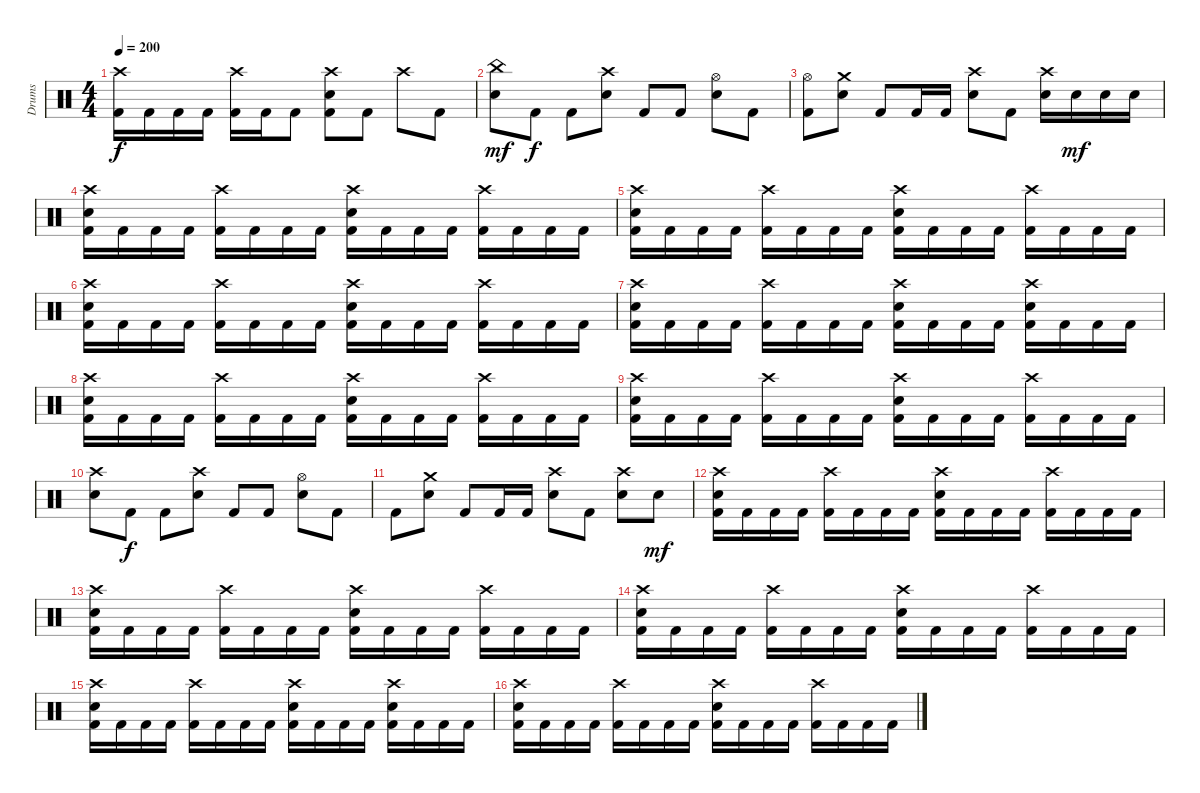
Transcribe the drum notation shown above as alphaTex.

\track ("Drums" "Drums") {instrument percussion}
\staff {score}
\articulation defaults
\ts (4 4)
\tempo 200
\clef neutral
\ks c
("Crash high (hit)" "Kick (hit) 2").16{dy f} "Kick (hit) 2".16 "Kick (hit) 2".16 "Kick (hit) 2".16 ("Crash high (hit)" "Kick (hit) 2").16 "Kick (hit) 2".16 "Kick (hit) 2".8 ("Crash high (hit)" "Electric Snare (hit)" "Kick (hit) 2").8 "Kick (hit) 2".8 "Crash high (hit)".8 "Kick (hit) 2".8 |
("China (hit)" "Electric Snare (hit)").8{dy mf} "Kick (hit) 2".8{dy f} "Kick (hit) 2".8 ("Crash high (hit)" "Electric Snare (hit)").8 "Kick (hit) 2".8 "Kick (hit) 2".8 ("Hi-Hat (open)" "Electric Snare (hit)").8 "Kick (hit) 2".8 |
("Hi-Hat (open)" "Kick (hit) 2").8 ("Crash medium (hit)" "Electric Snare (hit)").8 "Kick (hit) 2".8 "Kick (hit) 2".16 "Kick (hit) 2".16 ("Crash high (hit)" "Electric Snare (hit)").8 "Kick (hit) 2".8 ("Crash high (hit)" "Electric Snare (hit)").16 "Electric Snare (hit)".16{dy mf} "Electric Snare (hit)".16 "Electric Snare (hit)".16 |
("Crash high (hit)" "Electric Snare (hit)" "Kick (hit) 2").16 "Kick (hit) 2".16 "Kick (hit) 2".16 "Kick (hit) 2".16 ("Crash high (hit)" "Kick (hit) 2").16 "Kick (hit) 2".16 "Kick (hit) 2".16 "Kick (hit) 2".16 ("Crash high (hit)" "Electric Snare (hit)" "Kick (hit) 2").16 "Kick (hit) 2".16 "Kick (hit) 2".16 "Kick (hit) 2".16 ("Crash high (hit)" "Kick (hit) 2").16 "Kick (hit) 2".16 "Kick (hit) 2".16 "Kick (hit) 2".16 |
("Crash high (hit)" "Electric Snare (hit)" "Kick (hit) 2").16 "Kick (hit) 2".16 "Kick (hit) 2".16 "Kick (hit) 2".16 ("Crash high (hit)" "Kick (hit) 2").16 "Kick (hit) 2".16 "Kick (hit) 2".16 "Kick (hit) 2".16 ("Crash high (hit)" "Electric Snare (hit)" "Kick (hit) 2").16 "Kick (hit) 2".16 "Kick (hit) 2".16 "Kick (hit) 2".16 ("Crash high (hit)" "Kick (hit) 2").16 "Kick (hit) 2".16 "Kick (hit) 2".16 "Kick (hit) 2".16 |
("Crash high (hit)" "Electric Snare (hit)" "Kick (hit) 2").16 "Kick (hit) 2".16 "Kick (hit) 2".16 "Kick (hit) 2".16 ("Crash high (hit)" "Kick (hit) 2").16 "Kick (hit) 2".16 "Kick (hit) 2".16 "Kick (hit) 2".16 ("Crash high (hit)" "Electric Snare (hit)" "Kick (hit) 2").16 "Kick (hit) 2".16 "Kick (hit) 2".16 "Kick (hit) 2".16 ("Crash high (hit)" "Kick (hit) 2").16 "Kick (hit) 2".16 "Kick (hit) 2".16 "Kick (hit) 2".16 |
("Crash high (hit)" "Electric Snare (hit)" "Kick (hit) 2").16 "Kick (hit) 2".16 "Kick (hit) 2".16 "Kick (hit) 2".16 ("Crash high (hit)" "Kick (hit) 2").16 "Kick (hit) 2".16 "Kick (hit) 2".16 "Kick (hit) 2".16 ("Crash high (hit)" "Electric Snare (hit)" "Kick (hit) 2").16 "Kick (hit) 2".16 "Kick (hit) 2".16 "Kick (hit) 2".16 ("Crash high (hit)" "Electric Snare (hit)" "Kick (hit) 2").16 "Kick (hit) 2".16 "Kick (hit) 2".16 "Kick (hit) 2".16 |
("Crash high (hit)" "Electric Snare (hit)" "Kick (hit) 2").16 "Kick (hit) 2".16 "Kick (hit) 2".16 "Kick (hit) 2".16 ("Crash high (hit)" "Kick (hit) 2").16 "Kick (hit) 2".16 "Kick (hit) 2".16 "Kick (hit) 2".16 ("Crash high (hit)" "Electric Snare (hit)" "Kick (hit) 2").16 "Kick (hit) 2".16 "Kick (hit) 2".16 "Kick (hit) 2".16 ("Crash high (hit)" "Kick (hit) 2").16 "Kick (hit) 2".16 "Kick (hit) 2".16 "Kick (hit) 2".16 |
("Crash high (hit)" "Electric Snare (hit)" "Kick (hit) 2").16 "Kick (hit) 2".16 "Kick (hit) 2".16 "Kick (hit) 2".16 ("Crash high (hit)" "Kick (hit) 2").16 "Kick (hit) 2".16 "Kick (hit) 2".16 "Kick (hit) 2".16 ("Crash high (hit)" "Electric Snare (hit)" "Kick (hit) 2").16 "Kick (hit) 2".16 "Kick (hit) 2".16 "Kick (hit) 2".16 ("Crash high (hit)" "Kick (hit) 2").16 "Kick (hit) 2".16 "Kick (hit) 2".16 "Kick (hit) 2".16 |
("Crash high (hit)" "Electric Snare (hit)").8 "Kick (hit) 2".8{dy f} "Kick (hit) 2".8 ("Crash high (hit)" "Electric Snare (hit)").8 "Kick (hit) 2".8 "Kick (hit) 2".8 ("Hi-Hat (open)" "Electric Snare (hit)").8 "Kick (hit) 2".8 |
"Kick (hit) 2".8 ("Crash medium (hit)" "Electric Snare (hit)").8 "Kick (hit) 2".8 "Kick (hit) 2".16 "Kick (hit) 2".16 ("Crash high (hit)" "Electric Snare (hit)").8 "Kick (hit) 2".8 ("Crash high (hit)" "Electric Snare (hit)").8 "Electric Snare (hit)".8{dy mf} |
("Crash high (hit)" "Electric Snare (hit)" "Kick (hit) 2").16 "Kick (hit) 2".16 "Kick (hit) 2".16 "Kick (hit) 2".16 ("Crash high (hit)" "Kick (hit) 2").16 "Kick (hit) 2".16 "Kick (hit) 2".16 "Kick (hit) 2".16 ("Crash high (hit)" "Electric Snare (hit)" "Kick (hit) 2").16 "Kick (hit) 2".16 "Kick (hit) 2".16 "Kick (hit) 2".16 ("Crash high (hit)" "Kick (hit) 2").16 "Kick (hit) 2".16 "Kick (hit) 2".16 "Kick (hit) 2".16 |
("Crash high (hit)" "Electric Snare (hit)" "Kick (hit) 2").16 "Kick (hit) 2".16 "Kick (hit) 2".16 "Kick (hit) 2".16 ("Crash high (hit)" "Kick (hit) 2").16 "Kick (hit) 2".16 "Kick (hit) 2".16 "Kick (hit) 2".16 ("Crash high (hit)" "Electric Snare (hit)" "Kick (hit) 2").16 "Kick (hit) 2".16 "Kick (hit) 2".16 "Kick (hit) 2".16 ("Crash high (hit)" "Kick (hit) 2").16 "Kick (hit) 2".16 "Kick (hit) 2".16 "Kick (hit) 2".16 |
("Crash high (hit)" "Electric Snare (hit)" "Kick (hit) 2").16 "Kick (hit) 2".16 "Kick (hit) 2".16 "Kick (hit) 2".16 ("Crash high (hit)" "Kick (hit) 2").16 "Kick (hit) 2".16 "Kick (hit) 2".16 "Kick (hit) 2".16 ("Crash high (hit)" "Electric Snare (hit)" "Kick (hit) 2").16 "Kick (hit) 2".16 "Kick (hit) 2".16 "Kick (hit) 2".16 ("Crash high (hit)" "Kick (hit) 2").16 "Kick (hit) 2".16 "Kick (hit) 2".16 "Kick (hit) 2".16 |
("Crash high (hit)" "Electric Snare (hit)" "Kick (hit) 2").16 "Kick (hit) 2".16 "Kick (hit) 2".16 "Kick (hit) 2".16 ("Crash high (hit)" "Kick (hit) 2").16 "Kick (hit) 2".16 "Kick (hit) 2".16 "Kick (hit) 2".16 ("Crash high (hit)" "Electric Snare (hit)" "Kick (hit) 2").16 "Kick (hit) 2".16 "Kick (hit) 2".16 "Kick (hit) 2".16 ("Crash high (hit)" "Electric Snare (hit)" "Kick (hit) 2").16 "Kick (hit) 2".16 "Kick (hit) 2".16 "Kick (hit) 2".16 |
("Crash high (hit)" "Electric Snare (hit)" "Kick (hit) 2").16 "Kick (hit) 2".16 "Kick (hit) 2".16 "Kick (hit) 2".16 ("Crash high (hit)" "Kick (hit) 2").16 "Kick (hit) 2".16 "Kick (hit) 2".16 "Kick (hit) 2".16 ("Crash high (hit)" "Electric Snare (hit)" "Kick (hit) 2").16 "Kick (hit) 2".16 "Kick (hit) 2".16 "Kick (hit) 2".16 ("Crash high (hit)" "Kick (hit) 2").16 "Kick (hit) 2".16 "Kick (hit) 2".16 "Kick (hit) 2".16
